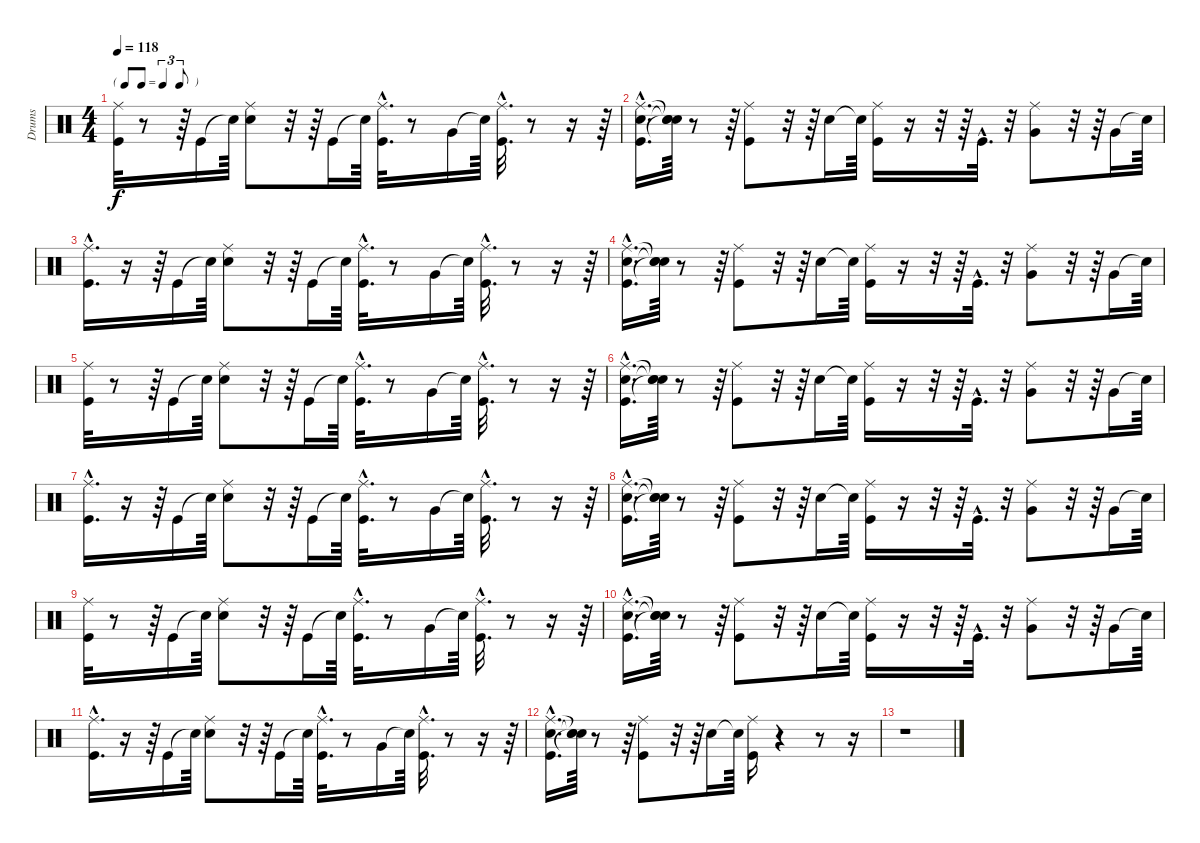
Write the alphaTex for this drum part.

\track ("Drums" "Drums") {instrument percussion}
\staff {score}
\articulation defaults
\ts (4 4)
\tf triplet8th
\tempo 118
\clef neutral
\ks c
("Ride (middle)" "Kick (hit)").32{dy f} r.8 r.64 "Kick (hit)".16 "Snare (hit)"{t}.64 ("Snare (hit) 2" "Ride (middle)").8 r.32 r.64 "Kick (hit)".16 "Snare (hit)"{t}.64 ("Ride (middle)"{hac} "Kick (hit)"{hac}).32{d} r.8 "Very Low Tom (hit)".16 "Snare (hit)"{t}.64 ("Ride (middle)"{hac} "Kick (hit)"{hac}).32{d} r.8 r.16 r.64 |
("Kick (hit)"{hac} "Ride (middle)"{hac} "Snare (hit) 2"{hac}).16{d} ("Snare (hit)"{t} "Snare (hit)"{t} "Snare (hit)"{t}).64 r.8 r.64 ("Kick (hit)" "Ride (middle)").8 r.32 r.64 "Snare (hit) 2".16 "Snare (hit)"{t}.64 ("Kick (hit)" "Ride (middle)").16 r.16 r.32 r.64 "Kick (hit)"{hac}.32{d} r.32 ("Ride (middle)" "Very Low Tom (hit)").8 r.32 r.64 "Very Low Tom (hit)".16 "Snare (hit)"{t}.64 |
("Kick (hit)"{hac} "Ride (middle)"{hac}).16{d} r.16 r.64 "Kick (hit)".16 "Snare (hit)"{t}.64 ("Snare (hit) 2" "Ride (middle)").8 r.32 r.64 "Kick (hit)".16 "Snare (hit)"{t}.64 ("Ride (middle)"{hac} "Kick (hit)"{hac}).32{d} r.8 "Very Low Tom (hit)".16 "Snare (hit)"{t}.64 ("Kick (hit)"{hac} "Ride (middle)"{hac}).32{d} r.8 r.16 r.64 |
("Ride (middle)"{hac} "Kick (hit)"{hac} "Snare (hit) 2"{hac}).16{d} ("Snare (hit)"{t} "Snare (hit)"{t} "Snare (hit)"{t}).64 r.8 r.64 ("Ride (middle)" "Kick (hit)").8 r.32 r.64 "Snare (hit) 2".16 "Snare (hit)"{t}.64 ("Kick (hit)" "Ride (middle)").16 r.16 r.32 r.64 "Kick (hit)"{hac}.32{d} r.32 ("Ride (middle)" "Very Low Tom (hit)").8 r.32 r.64 "Very Low Tom (hit)".16 "Snare (hit)"{t}.64 |
("Ride (middle)" "Kick (hit)").32 r.8 r.64 "Kick (hit)".16 "Snare (hit)"{t}.64 ("Snare (hit) 2" "Ride (middle)").8 r.32 r.64 "Kick (hit)".16 "Snare (hit)"{t}.64 ("Ride (middle)"{hac} "Kick (hit)"{hac}).32{d} r.8 "Very Low Tom (hit)".16 "Snare (hit)"{t}.64 ("Ride (middle)"{hac} "Kick (hit)"{hac}).32{d} r.8 r.16 r.64 |
("Kick (hit)"{hac} "Ride (middle)"{hac} "Snare (hit) 2"{hac}).16{d} ("Snare (hit)"{t} "Snare (hit)"{t} "Snare (hit)"{t}).64 r.8 r.64 ("Kick (hit)" "Ride (middle)").8 r.32 r.64 "Snare (hit) 2".16 "Snare (hit)"{t}.64 ("Kick (hit)" "Ride (middle)").16 r.16 r.32 r.64 "Kick (hit)"{hac}.32{d} r.32 ("Ride (middle)" "Very Low Tom (hit)").8 r.32 r.64 "Very Low Tom (hit)".16 "Snare (hit)"{t}.64 |
("Kick (hit)"{hac} "Ride (middle)"{hac}).16{d} r.16 r.64 "Kick (hit)".16 "Snare (hit)"{t}.64 ("Snare (hit) 2" "Ride (middle)").8 r.32 r.64 "Kick (hit)".16 "Snare (hit)"{t}.64 ("Ride (middle)"{hac} "Kick (hit)"{hac}).32{d} r.8 "Very Low Tom (hit)".16 "Snare (hit)"{t}.64 ("Kick (hit)"{hac} "Ride (middle)"{hac}).32{d} r.8 r.16 r.64 |
("Ride (middle)"{hac} "Kick (hit)"{hac} "Snare (hit) 2"{hac}).16{d} ("Snare (hit)"{t} "Snare (hit)"{t} "Snare (hit)"{t}).64 r.8 r.64 ("Ride (middle)" "Kick (hit)").8 r.32 r.64 "Snare (hit) 2".16 "Snare (hit)"{t}.64 ("Kick (hit)" "Ride (middle)").16 r.16 r.32 r.64 "Kick (hit)"{hac}.32{d} r.32 ("Ride (middle)" "Very Low Tom (hit)").8 r.32 r.64 "Very Low Tom (hit)".16 "Snare (hit)"{t}.64 |
("Ride (middle)" "Kick (hit)").32 r.8 r.64 "Kick (hit)".16 "Snare (hit)"{t}.64 ("Snare (hit) 2" "Ride (middle)").8 r.32 r.64 "Kick (hit)".16 "Snare (hit)"{t}.64 ("Ride (middle)"{hac} "Kick (hit)"{hac}).32{d} r.8 "Very Low Tom (hit)".16 "Snare (hit)"{t}.64 ("Ride (middle)"{hac} "Kick (hit)"{hac}).32{d} r.8 r.16 r.64 |
("Kick (hit)"{hac} "Ride (middle)"{hac} "Snare (hit) 2"{hac}).16{d} ("Snare (hit)"{t} "Snare (hit)"{t} "Snare (hit)"{t}).64 r.8 r.64 ("Kick (hit)" "Ride (middle)").8 r.32 r.64 "Snare (hit) 2".16 "Snare (hit)"{t}.64 ("Kick (hit)" "Ride (middle)").16 r.16 r.32 r.64 "Kick (hit)"{hac}.32{d} r.32 ("Ride (middle)" "Very Low Tom (hit)").8 r.32 r.64 "Very Low Tom (hit)".16 "Snare (hit)"{t}.64 |
("Kick (hit)"{hac} "Ride (middle)"{hac}).16{d} r.16 r.64 "Kick (hit)".16 "Snare (hit)"{t}.64 ("Snare (hit) 2" "Ride (middle)").8 r.32 r.64 "Kick (hit)".16 "Snare (hit)"{t}.64 ("Ride (middle)"{hac} "Kick (hit)"{hac}).32{d} r.8 "Very Low Tom (hit)".16 "Snare (hit)"{t}.64 ("Kick (hit)"{hac} "Ride (middle)"{hac}).32{d} r.8 r.16 r.64 |
("Ride (middle)"{hac} "Kick (hit)"{hac} "Snare (hit) 2"{hac}).16{d} ("Snare (hit)"{t} "Snare (hit)"{t} "Snare (hit)"{t}).64 r.8 r.64 ("Ride (middle)" "Kick (hit)").8 r.32 r.64 "Snare (hit) 2".16 "Snare (hit)"{t}.64 ("Kick (hit)" "Ride (middle)").16 r.4 r.8 r.16 |
r.1
